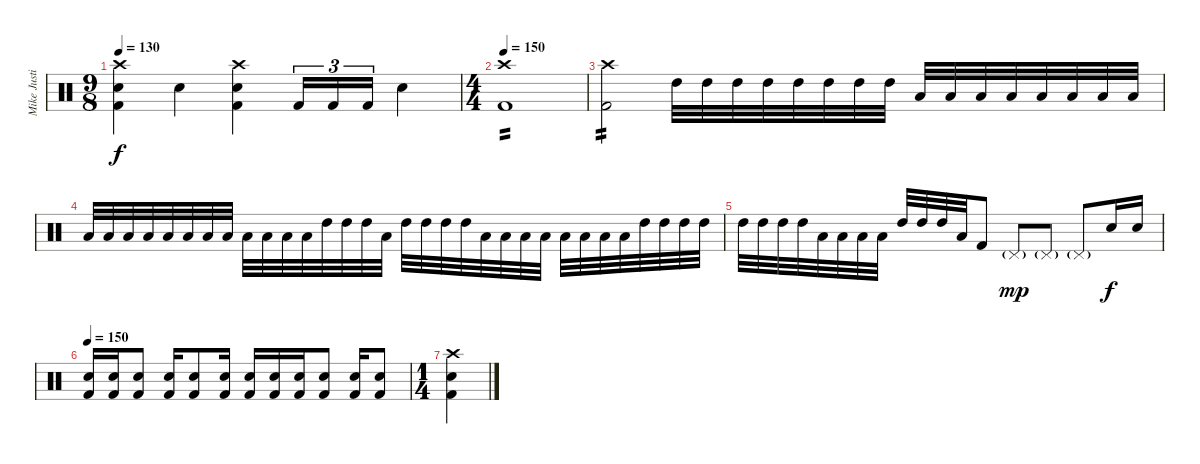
\track ("Mike Justian" "Mike Justi") {instrument percussion}
\staff {score}
\articulation defaults
\ts (9 8)
\tempo 130
\clef neutral
\ks c
("Crash high (hit)" "Electric Snare (hit)" "Kick (hit) 2").4{dy f} "Electric Snare (hit)".4 ("Crash high (hit)" "Electric Snare (hit)" "Kick (hit) 2").4 "Kick (hit) 2".16{tu (3 2)} "Kick (hit) 2".16{tu (3 2)} "Kick (hit) 2".16{tu (3 2)} "Electric Snare (hit)".4 |
\ts (4 4)
\tempo 150
("Crash high (hit)" "Kick (hit) 2").1{tp 2} |
("Crash high (hit)" "Kick (hit) 2").2{tp 2} "High Tom (hit)".32 "High Tom (hit)".32 "High Tom (hit)".32 "High Tom (hit)".32 "High Tom (hit)".32 "High Tom (hit)".32 "High Tom (hit)".32 "High Tom (hit)".32 "Low Tom (hit)".32 "Low Tom (hit)".32 "Low Tom (hit)".32 "Low Tom (hit)".32 "Low Tom (hit)".32 "Low Tom (hit)".32 "Low Tom (hit)".32 "Low Tom (hit)".32 |
"Low Floor Tom (hit)".32 "Low Floor Tom (hit)".32 "Low Floor Tom (hit)".32 "Low Floor Tom (hit)".32 "Low Floor Tom (hit)".32 "Low Floor Tom (hit)".32 "Low Floor Tom (hit)".32 "Low Floor Tom (hit)".32 "Low Tom (hit)".32 "Low Tom (hit)".32 "Low Tom (hit)".32 "Low Tom (hit)".32 "High Tom (hit)".32 "High Tom (hit)".32 "High Tom (hit)".32 "Low Floor Tom (hit)".32 "High Tom (hit)".32 "High Tom (hit)".32 "High Tom (hit)".32 "High Tom (hit)".32 "Low Tom (hit)".32 "Low Tom (hit)".32 "Low Tom (hit)".32 "Low Tom (hit)".32 "Low Floor Tom (hit)".32 "Low Floor Tom (hit)".32 "Low Floor Tom (hit)".32 "Low Floor Tom (hit)".32 "High Tom (hit)".32 "High Tom (hit)".32 "High Tom (hit)".32 "High Tom (hit)".32 |
"High Tom (hit)".32 "High Tom (hit)".32 "High Tom (hit)".32 "High Tom (hit)".32 "Low Tom (hit)".32 "Low Tom (hit)".32 "Low Tom (hit)".32 "Low Tom (hit)".32 "High Tom (hit)".32 "High Tom (hit)".32 "High Tom (hit)".32 "Low Tom (hit)".32 "Kick (hit) 2".8 "Pedal Hi-Hat (hit)"{g}.8{dy mp} "Pedal Hi-Hat (hit)"{g}.8 "Pedal Hi-Hat (hit)"{g}.8 "Electric Snare (hit)".16{dy f} "Electric Snare (hit)".16 |
\tempo 150
("Electric Snare (hit)" "Kick (hit) 2").16 ("Electric Snare (hit)" "Kick (hit) 2").16 ("Electric Snare (hit)" "Kick (hit) 2").8 ("Electric Snare (hit)" "Kick (hit) 2").16 ("Electric Snare (hit)" "Kick (hit) 2").8 ("Electric Snare (hit)" "Kick (hit) 2").16 ("Electric Snare (hit)" "Kick (hit) 2").16 ("Electric Snare (hit)" "Kick (hit) 2").16 ("Electric Snare (hit)" "Kick (hit) 2").16 ("Electric Snare (hit)" "Kick (hit) 2").8 ("Electric Snare (hit)" "Kick (hit) 2").16 ("Electric Snare (hit)" "Kick (hit) 2").8 |
\ts (1 4)
("Crash high (hit)" "Electric Snare (hit)" "Kick (hit) 2").4
